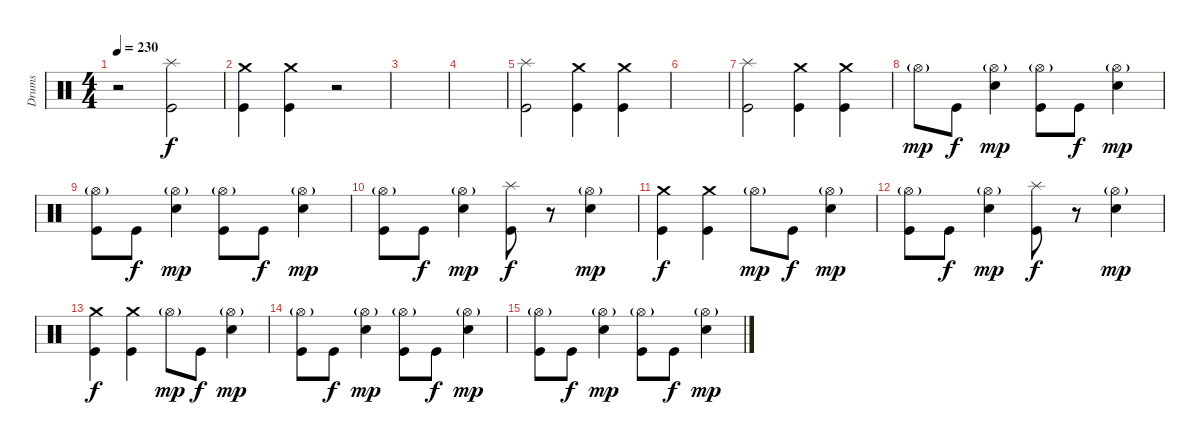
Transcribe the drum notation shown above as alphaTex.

\track ("Drums" "Drums") {instrument percussion}
\staff {score}
\articulation defaults
\ts (4 4)
\tempo 230
\clef neutral
\ks c
r.2{dy f} ("Splash (hit)" "Kick (hit)").2 |
("Crash medium (hit)" "Kick (hit)").4 ("Crash medium (hit)" "Kick (hit)").4 r.2 |
|
|
("Splash (hit)" "Kick (hit)").2 ("Crash medium (hit)" "Kick (hit)").4 ("Crash medium (hit)" "Kick (hit)").4 |
|
("Splash (hit)" "Kick (hit)").2 ("Crash medium (hit)" "Kick (hit)").4 ("Crash medium (hit)" "Kick (hit)").4 |
"Hi-Hat (open)"{g}.8{dy mp} "Kick (hit)".8{dy f} ("Hi-Hat (open)"{g} "Snare (hit) 2").4{dy mp} ("Hi-Hat (open)"{g} "Kick (hit)").8 "Kick (hit)".8{dy f} ("Hi-Hat (open)"{g} "Snare (hit) 2").4{dy mp} |
("Hi-Hat (open)"{g} "Kick (hit)").8 "Kick (hit)".8{dy f} ("Hi-Hat (open)"{g} "Snare (hit) 2").4{dy mp} ("Hi-Hat (open)"{g} "Kick (hit)").8 "Kick (hit)".8{dy f} ("Hi-Hat (open)"{g} "Snare (hit) 2").4{dy mp} |
("Hi-Hat (open)"{g} "Kick (hit)").8 "Kick (hit)".8{dy f} ("Hi-Hat (open)"{g} "Snare (hit) 2").4{dy mp} ("Splash (hit)" "Kick (hit)").8{dy f} r.8 ("Hi-Hat (open)"{g} "Snare (hit) 2").4{dy mp} |
("Crash medium (hit)" "Kick (hit)").4{dy f} ("Crash medium (hit)" "Kick (hit)").4 "Hi-Hat (open)"{g}.8{dy mp} "Kick (hit)".8{dy f} ("Hi-Hat (open)"{g} "Snare (hit) 2").4{dy mp} |
("Hi-Hat (open)"{g} "Kick (hit)").8 "Kick (hit)".8{dy f} ("Hi-Hat (open)"{g} "Snare (hit) 2").4{dy mp} ("Splash (hit)" "Kick (hit)").8{dy f} r.8 ("Hi-Hat (open)"{g} "Snare (hit) 2").4{dy mp} |
("Crash medium (hit)" "Kick (hit)").4{dy f} ("Crash medium (hit)" "Kick (hit)").4 "Hi-Hat (open)"{g}.8{dy mp} "Kick (hit)".8{dy f} ("Hi-Hat (open)"{g} "Snare (hit) 2").4{dy mp} |
("Hi-Hat (open)"{g} "Kick (hit)").8 "Kick (hit)".8{dy f} ("Hi-Hat (open)"{g} "Snare (hit) 2").4{dy mp} ("Hi-Hat (open)"{g} "Kick (hit)").8 "Kick (hit)".8{dy f} ("Hi-Hat (open)"{g} "Snare (hit) 2").4{dy mp} |
("Hi-Hat (open)"{g} "Kick (hit)").8 "Kick (hit)".8{dy f} ("Hi-Hat (open)"{g} "Snare (hit) 2").4{dy mp} ("Hi-Hat (open)"{g} "Kick (hit)").8 "Kick (hit)".8{dy f} ("Hi-Hat (open)"{g} "Snare (hit) 2").4{dy mp}
